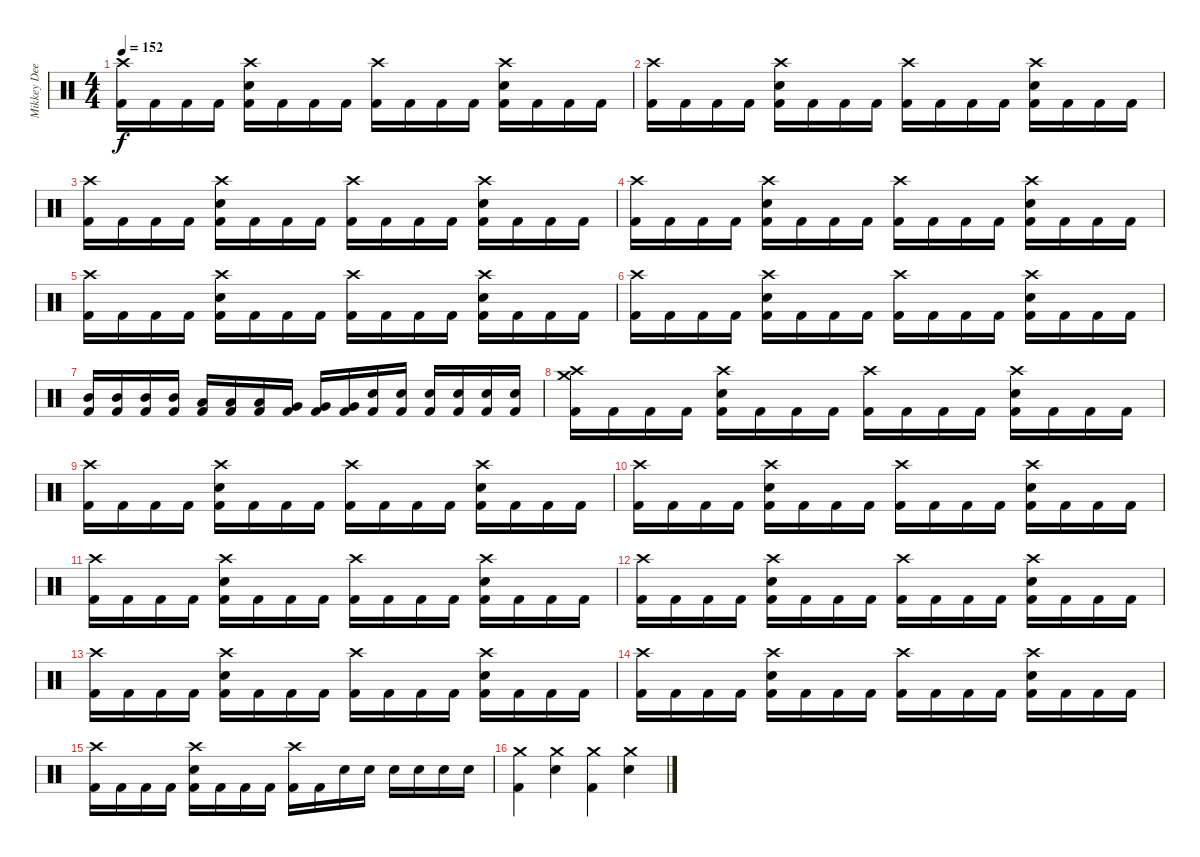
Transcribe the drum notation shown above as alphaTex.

\track ("Mikkey Dee" "Mikkey Dee") {instrument percussion}
\staff {score}
\articulation defaults
\ts (4 4)
\tempo 152
\clef neutral
\ks c
("Crash high (hit)" "Kick (hit) 2").16{dy f} "Kick (hit) 2".16 "Kick (hit) 2".16 "Kick (hit) 2".16 ("Crash high (hit)" "Snare (hit) 2" "Kick (hit) 2").16 "Kick (hit) 2".16 "Kick (hit) 2".16 "Kick (hit) 2".16 ("Crash high (hit)" "Kick (hit) 2").16 "Kick (hit) 2".16 "Kick (hit) 2".16 "Kick (hit) 2".16 ("Crash high (hit)" "Snare (hit) 2" "Kick (hit) 2").16 "Kick (hit) 2".16 "Kick (hit) 2".16 "Kick (hit) 2".16 |
("Crash high (hit)" "Kick (hit) 2").16 "Kick (hit) 2".16 "Kick (hit) 2".16 "Kick (hit) 2".16 ("Crash high (hit)" "Snare (hit) 2" "Kick (hit) 2").16 "Kick (hit) 2".16 "Kick (hit) 2".16 "Kick (hit) 2".16 ("Crash high (hit)" "Kick (hit) 2").16 "Kick (hit) 2".16 "Kick (hit) 2".16 "Kick (hit) 2".16 ("Crash high (hit)" "Snare (hit) 2" "Kick (hit) 2").16 "Kick (hit) 2".16 "Kick (hit) 2".16 "Kick (hit) 2".16 |
("Crash high (hit)" "Kick (hit) 2").16 "Kick (hit) 2".16 "Kick (hit) 2".16 "Kick (hit) 2".16 ("Crash high (hit)" "Snare (hit) 2" "Kick (hit) 2").16 "Kick (hit) 2".16 "Kick (hit) 2".16 "Kick (hit) 2".16 ("Crash high (hit)" "Kick (hit) 2").16 "Kick (hit) 2".16 "Kick (hit) 2".16 "Kick (hit) 2".16 ("Crash high (hit)" "Snare (hit) 2" "Kick (hit) 2").16 "Kick (hit) 2".16 "Kick (hit) 2".16 "Kick (hit) 2".16 |
("Crash high (hit)" "Kick (hit) 2").16 "Kick (hit) 2".16 "Kick (hit) 2".16 "Kick (hit) 2".16 ("Crash high (hit)" "Snare (hit) 2" "Kick (hit) 2").16 "Kick (hit) 2".16 "Kick (hit) 2".16 "Kick (hit) 2".16 ("Crash high (hit)" "Kick (hit) 2").16 "Kick (hit) 2".16 "Kick (hit) 2".16 "Kick (hit) 2".16 ("Crash high (hit)" "Snare (hit) 2" "Kick (hit) 2").16 "Kick (hit) 2".16 "Kick (hit) 2".16 "Kick (hit) 2".16 |
("Crash high (hit)" "Kick (hit) 2").16 "Kick (hit) 2".16 "Kick (hit) 2".16 "Kick (hit) 2".16 ("Crash high (hit)" "Snare (hit) 2" "Kick (hit) 2").16 "Kick (hit) 2".16 "Kick (hit) 2".16 "Kick (hit) 2".16 ("Crash high (hit)" "Kick (hit) 2").16 "Kick (hit) 2".16 "Kick (hit) 2".16 "Kick (hit) 2".16 ("Crash high (hit)" "Snare (hit) 2" "Kick (hit) 2").16 "Kick (hit) 2".16 "Kick (hit) 2".16 "Kick (hit) 2".16 |
("Crash high (hit)" "Kick (hit) 2").16 "Kick (hit) 2".16 "Kick (hit) 2".16 "Kick (hit) 2".16 ("Crash high (hit)" "Snare (hit) 2" "Kick (hit) 2").16 "Kick (hit) 2".16 "Kick (hit) 2".16 "Kick (hit) 2".16 ("Crash high (hit)" "Kick (hit) 2").16 "Kick (hit) 2".16 "Kick (hit) 2".16 "Kick (hit) 2".16 ("Crash high (hit)" "Snare (hit) 2" "Kick (hit) 2").16 "Kick (hit) 2".16 "Kick (hit) 2".16 "Kick (hit) 2".16 |
("Mid Tom (hit)" "Kick (hit) 2").16 ("Mid Tom (hit)" "Kick (hit) 2").16 ("Mid Tom (hit)" "Kick (hit) 2").16 ("Mid Tom (hit)" "Kick (hit) 2").16 ("Low Tom (hit)" "Kick (hit) 2").16 ("Low Tom (hit)" "Kick (hit) 2").16 ("Low Tom (hit)" "Kick (hit) 2").16 ("Very Low Tom (hit)" "Kick (hit) 2").16 ("Very Low Tom (hit)" "Kick (hit) 2").16 ("Very Low Tom (hit)" "Kick (hit) 2").16 ("Snare (hit) 2" "Kick (hit) 2").16 ("Snare (hit) 2" "Kick (hit) 2").16 ("Snare (hit) 2" "Kick (hit) 2").16 ("Snare (hit) 2" "Kick (hit) 2").16 ("Snare (hit) 2" "Kick (hit) 2").16 ("Snare (hit) 2" "Kick (hit) 2").16 |
("Crash high (hit)" "Crash medium (hit)" "Kick (hit) 2").16 "Kick (hit) 2".16 "Kick (hit) 2".16 "Kick (hit) 2".16 ("Crash high (hit)" "Snare (hit) 2" "Kick (hit) 2").16 "Kick (hit) 2".16 "Kick (hit) 2".16 "Kick (hit) 2".16 ("Crash high (hit)" "Kick (hit) 2").16 "Kick (hit) 2".16 "Kick (hit) 2".16 "Kick (hit) 2".16 ("Crash high (hit)" "Snare (hit) 2" "Kick (hit) 2").16 "Kick (hit) 2".16 "Kick (hit) 2".16 "Kick (hit) 2".16 |
("Crash high (hit)" "Kick (hit) 2").16 "Kick (hit) 2".16 "Kick (hit) 2".16 "Kick (hit) 2".16 ("Crash high (hit)" "Snare (hit) 2" "Kick (hit) 2").16 "Kick (hit) 2".16 "Kick (hit) 2".16 "Kick (hit) 2".16 ("Crash high (hit)" "Kick (hit) 2").16 "Kick (hit) 2".16 "Kick (hit) 2".16 "Kick (hit) 2".16 ("Crash high (hit)" "Snare (hit) 2" "Kick (hit) 2").16 "Kick (hit) 2".16 "Kick (hit) 2".16 "Kick (hit) 2".16 |
("Crash high (hit)" "Kick (hit) 2").16 "Kick (hit) 2".16 "Kick (hit) 2".16 "Kick (hit) 2".16 ("Crash high (hit)" "Snare (hit) 2" "Kick (hit) 2").16 "Kick (hit) 2".16 "Kick (hit) 2".16 "Kick (hit) 2".16 ("Crash high (hit)" "Kick (hit) 2").16 "Kick (hit) 2".16 "Kick (hit) 2".16 "Kick (hit) 2".16 ("Crash high (hit)" "Snare (hit) 2" "Kick (hit) 2").16 "Kick (hit) 2".16 "Kick (hit) 2".16 "Kick (hit) 2".16 |
("Crash high (hit)" "Kick (hit) 2").16 "Kick (hit) 2".16 "Kick (hit) 2".16 "Kick (hit) 2".16 ("Crash high (hit)" "Snare (hit) 2" "Kick (hit) 2").16 "Kick (hit) 2".16 "Kick (hit) 2".16 "Kick (hit) 2".16 ("Crash high (hit)" "Kick (hit) 2").16 "Kick (hit) 2".16 "Kick (hit) 2".16 "Kick (hit) 2".16 ("Crash high (hit)" "Snare (hit) 2" "Kick (hit) 2").16 "Kick (hit) 2".16 "Kick (hit) 2".16 "Kick (hit) 2".16 |
("Crash high (hit)" "Kick (hit) 2").16 "Kick (hit) 2".16 "Kick (hit) 2".16 "Kick (hit) 2".16 ("Crash high (hit)" "Snare (hit) 2" "Kick (hit) 2").16 "Kick (hit) 2".16 "Kick (hit) 2".16 "Kick (hit) 2".16 ("Crash high (hit)" "Kick (hit) 2").16 "Kick (hit) 2".16 "Kick (hit) 2".16 "Kick (hit) 2".16 ("Crash high (hit)" "Snare (hit) 2" "Kick (hit) 2").16 "Kick (hit) 2".16 "Kick (hit) 2".16 "Kick (hit) 2".16 |
("Crash high (hit)" "Kick (hit) 2").16 "Kick (hit) 2".16 "Kick (hit) 2".16 "Kick (hit) 2".16 ("Crash high (hit)" "Snare (hit) 2" "Kick (hit) 2").16 "Kick (hit) 2".16 "Kick (hit) 2".16 "Kick (hit) 2".16 ("Crash high (hit)" "Kick (hit) 2").16 "Kick (hit) 2".16 "Kick (hit) 2".16 "Kick (hit) 2".16 ("Crash high (hit)" "Snare (hit) 2" "Kick (hit) 2").16 "Kick (hit) 2".16 "Kick (hit) 2".16 "Kick (hit) 2".16 |
("Crash high (hit)" "Kick (hit) 2").16 "Kick (hit) 2".16 "Kick (hit) 2".16 "Kick (hit) 2".16 ("Crash high (hit)" "Snare (hit) 2" "Kick (hit) 2").16 "Kick (hit) 2".16 "Kick (hit) 2".16 "Kick (hit) 2".16 ("Crash high (hit)" "Kick (hit) 2").16 "Kick (hit) 2".16 "Kick (hit) 2".16 "Kick (hit) 2".16 ("Crash high (hit)" "Snare (hit) 2" "Kick (hit) 2").16 "Kick (hit) 2".16 "Kick (hit) 2".16 "Kick (hit) 2".16 |
("Crash high (hit)" "Kick (hit) 2").16 "Kick (hit) 2".16 "Kick (hit) 2".16 "Kick (hit) 2".16 ("Crash high (hit)" "Snare (hit) 2" "Kick (hit) 2").16 "Kick (hit) 2".16 "Kick (hit) 2".16 "Kick (hit) 2".16 ("Crash high (hit)" "Kick (hit) 2").16 "Kick (hit) 2".16 "Snare (hit) 2".16 "Snare (hit) 2".16 "Snare (hit) 2".16 "Snare (hit) 2".16 "Snare (hit) 2".16 "Snare (hit) 2".16 |
("Crash medium (hit)" "Kick (hit) 2").4 ("Crash medium (hit)" "Snare (hit) 2").4 ("Crash medium (hit)" "Kick (hit) 2").4 ("Crash medium (hit)" "Snare (hit) 2").4
